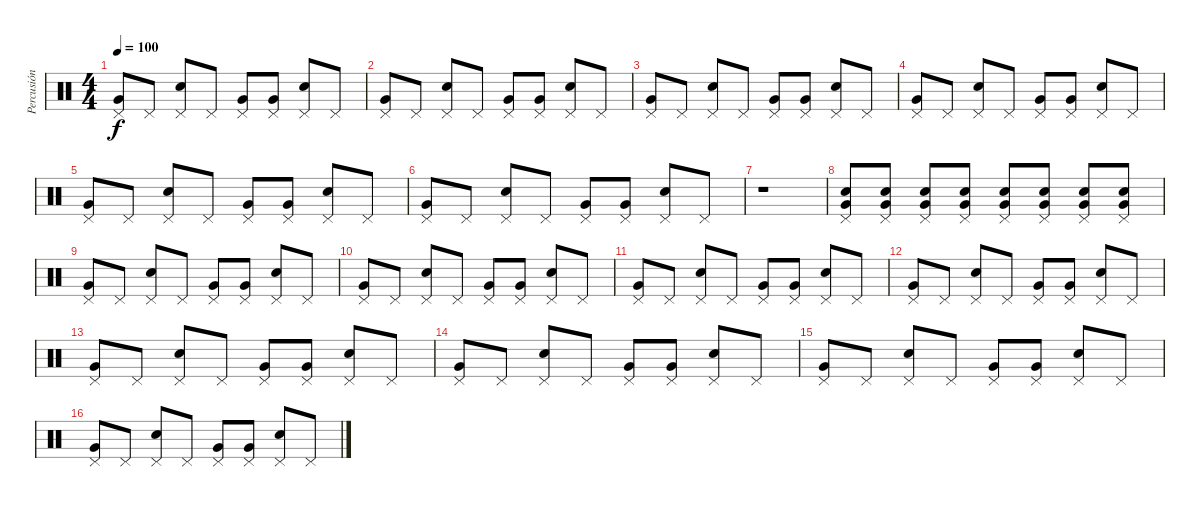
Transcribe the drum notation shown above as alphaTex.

\track ("Percusión" "Percusión") {instrument percussion}
\staff {score}
\articulation defaults
\ts (4 4)
\tempo 100
\clef neutral
\ks c
("Pedal Hi-Hat (hit)" "Very Low Tom (hit)").8{dy f} "Pedal Hi-Hat (hit)".8 ("Pedal Hi-Hat (hit)" "Snare (hit) 2").8 "Pedal Hi-Hat (hit)".8 ("Pedal Hi-Hat (hit)" "Very Low Tom (hit)").8 ("Pedal Hi-Hat (hit)" "Very Low Tom (hit)").8 ("Pedal Hi-Hat (hit)" "Snare (hit) 2").8 "Pedal Hi-Hat (hit)".8 |
("Pedal Hi-Hat (hit)" "Very Low Tom (hit)").8 "Pedal Hi-Hat (hit)".8 ("Pedal Hi-Hat (hit)" "Snare (hit) 2").8 "Pedal Hi-Hat (hit)".8 ("Pedal Hi-Hat (hit)" "Very Low Tom (hit)").8 ("Pedal Hi-Hat (hit)" "Very Low Tom (hit)").8 ("Pedal Hi-Hat (hit)" "Snare (hit) 2").8 "Pedal Hi-Hat (hit)".8 |
("Pedal Hi-Hat (hit)" "Very Low Tom (hit)").8 "Pedal Hi-Hat (hit)".8 ("Pedal Hi-Hat (hit)" "Snare (hit) 2").8 "Pedal Hi-Hat (hit)".8 ("Pedal Hi-Hat (hit)" "Very Low Tom (hit)").8 ("Pedal Hi-Hat (hit)" "Very Low Tom (hit)").8 ("Pedal Hi-Hat (hit)" "Snare (hit) 2").8 "Pedal Hi-Hat (hit)".8 |
("Pedal Hi-Hat (hit)" "Very Low Tom (hit)").8 "Pedal Hi-Hat (hit)".8 ("Pedal Hi-Hat (hit)" "Snare (hit) 2").8 "Pedal Hi-Hat (hit)".8 ("Pedal Hi-Hat (hit)" "Very Low Tom (hit)").8 ("Pedal Hi-Hat (hit)" "Very Low Tom (hit)").8 ("Pedal Hi-Hat (hit)" "Snare (hit) 2").8 "Pedal Hi-Hat (hit)".8 |
("Pedal Hi-Hat (hit)" "Very Low Tom (hit)").8 "Pedal Hi-Hat (hit)".8 ("Pedal Hi-Hat (hit)" "Snare (hit) 2").8 "Pedal Hi-Hat (hit)".8 ("Pedal Hi-Hat (hit)" "Very Low Tom (hit)").8 ("Pedal Hi-Hat (hit)" "Very Low Tom (hit)").8 ("Pedal Hi-Hat (hit)" "Snare (hit) 2").8 "Pedal Hi-Hat (hit)".8 |
("Pedal Hi-Hat (hit)" "Very Low Tom (hit)").8 "Pedal Hi-Hat (hit)".8 ("Pedal Hi-Hat (hit)" "Snare (hit) 2").8 "Pedal Hi-Hat (hit)".8 ("Pedal Hi-Hat (hit)" "Very Low Tom (hit)").8 ("Pedal Hi-Hat (hit)" "Very Low Tom (hit)").8 ("Pedal Hi-Hat (hit)" "Snare (hit) 2").8 "Pedal Hi-Hat (hit)".8 |
r.1 |
("Pedal Hi-Hat (hit)" "Snare (hit) 2" "Very Low Tom (hit)").8 ("Pedal Hi-Hat (hit)" "Snare (hit) 2" "Very Low Tom (hit)").8 ("Pedal Hi-Hat (hit)" "Snare (hit) 2" "Very Low Tom (hit)").8 ("Pedal Hi-Hat (hit)" "Snare (hit) 2" "Very Low Tom (hit)").8 ("Pedal Hi-Hat (hit)" "Snare (hit) 2" "Very Low Tom (hit)").8 ("Pedal Hi-Hat (hit)" "Snare (hit) 2" "Very Low Tom (hit)").8 ("Pedal Hi-Hat (hit)" "Snare (hit) 2" "Very Low Tom (hit)").8 ("Pedal Hi-Hat (hit)" "Snare (hit) 2" "Very Low Tom (hit)").8 |
("Pedal Hi-Hat (hit)" "Very Low Tom (hit)").8 "Pedal Hi-Hat (hit)".8 ("Pedal Hi-Hat (hit)" "Snare (hit) 2").8 "Pedal Hi-Hat (hit)".8 ("Pedal Hi-Hat (hit)" "Very Low Tom (hit)").8 ("Pedal Hi-Hat (hit)" "Very Low Tom (hit)").8 ("Pedal Hi-Hat (hit)" "Snare (hit) 2").8 "Pedal Hi-Hat (hit)".8 |
("Pedal Hi-Hat (hit)" "Very Low Tom (hit)").8 "Pedal Hi-Hat (hit)".8 ("Pedal Hi-Hat (hit)" "Snare (hit) 2").8 "Pedal Hi-Hat (hit)".8 ("Pedal Hi-Hat (hit)" "Very Low Tom (hit)").8 ("Pedal Hi-Hat (hit)" "Very Low Tom (hit)").8 ("Pedal Hi-Hat (hit)" "Snare (hit) 2").8 "Pedal Hi-Hat (hit)".8 |
("Pedal Hi-Hat (hit)" "Very Low Tom (hit)").8 "Pedal Hi-Hat (hit)".8 ("Pedal Hi-Hat (hit)" "Snare (hit) 2").8 "Pedal Hi-Hat (hit)".8 ("Pedal Hi-Hat (hit)" "Very Low Tom (hit)").8 ("Pedal Hi-Hat (hit)" "Very Low Tom (hit)").8 ("Pedal Hi-Hat (hit)" "Snare (hit) 2").8 "Pedal Hi-Hat (hit)".8 |
("Pedal Hi-Hat (hit)" "Very Low Tom (hit)").8 "Pedal Hi-Hat (hit)".8 ("Pedal Hi-Hat (hit)" "Snare (hit) 2").8 "Pedal Hi-Hat (hit)".8 ("Pedal Hi-Hat (hit)" "Very Low Tom (hit)").8 ("Pedal Hi-Hat (hit)" "Very Low Tom (hit)").8 ("Pedal Hi-Hat (hit)" "Snare (hit) 2").8 "Pedal Hi-Hat (hit)".8 |
("Pedal Hi-Hat (hit)" "Very Low Tom (hit)").8 "Pedal Hi-Hat (hit)".8 ("Pedal Hi-Hat (hit)" "Snare (hit) 2").8 "Pedal Hi-Hat (hit)".8 ("Pedal Hi-Hat (hit)" "Very Low Tom (hit)").8 ("Pedal Hi-Hat (hit)" "Very Low Tom (hit)").8 ("Pedal Hi-Hat (hit)" "Snare (hit) 2").8 "Pedal Hi-Hat (hit)".8 |
("Pedal Hi-Hat (hit)" "Very Low Tom (hit)").8 "Pedal Hi-Hat (hit)".8 ("Pedal Hi-Hat (hit)" "Snare (hit) 2").8 "Pedal Hi-Hat (hit)".8 ("Pedal Hi-Hat (hit)" "Very Low Tom (hit)").8 ("Pedal Hi-Hat (hit)" "Very Low Tom (hit)").8 ("Pedal Hi-Hat (hit)" "Snare (hit) 2").8 "Pedal Hi-Hat (hit)".8 |
("Pedal Hi-Hat (hit)" "Very Low Tom (hit)").8 "Pedal Hi-Hat (hit)".8 ("Pedal Hi-Hat (hit)" "Snare (hit) 2").8 "Pedal Hi-Hat (hit)".8 ("Pedal Hi-Hat (hit)" "Very Low Tom (hit)").8 ("Pedal Hi-Hat (hit)" "Very Low Tom (hit)").8 ("Pedal Hi-Hat (hit)" "Snare (hit) 2").8 "Pedal Hi-Hat (hit)".8 |
("Pedal Hi-Hat (hit)" "Very Low Tom (hit)").8 "Pedal Hi-Hat (hit)".8 ("Pedal Hi-Hat (hit)" "Snare (hit) 2").8 "Pedal Hi-Hat (hit)".8 ("Pedal Hi-Hat (hit)" "Very Low Tom (hit)").8 ("Pedal Hi-Hat (hit)" "Very Low Tom (hit)").8 ("Pedal Hi-Hat (hit)" "Snare (hit) 2").8 "Pedal Hi-Hat (hit)".8
